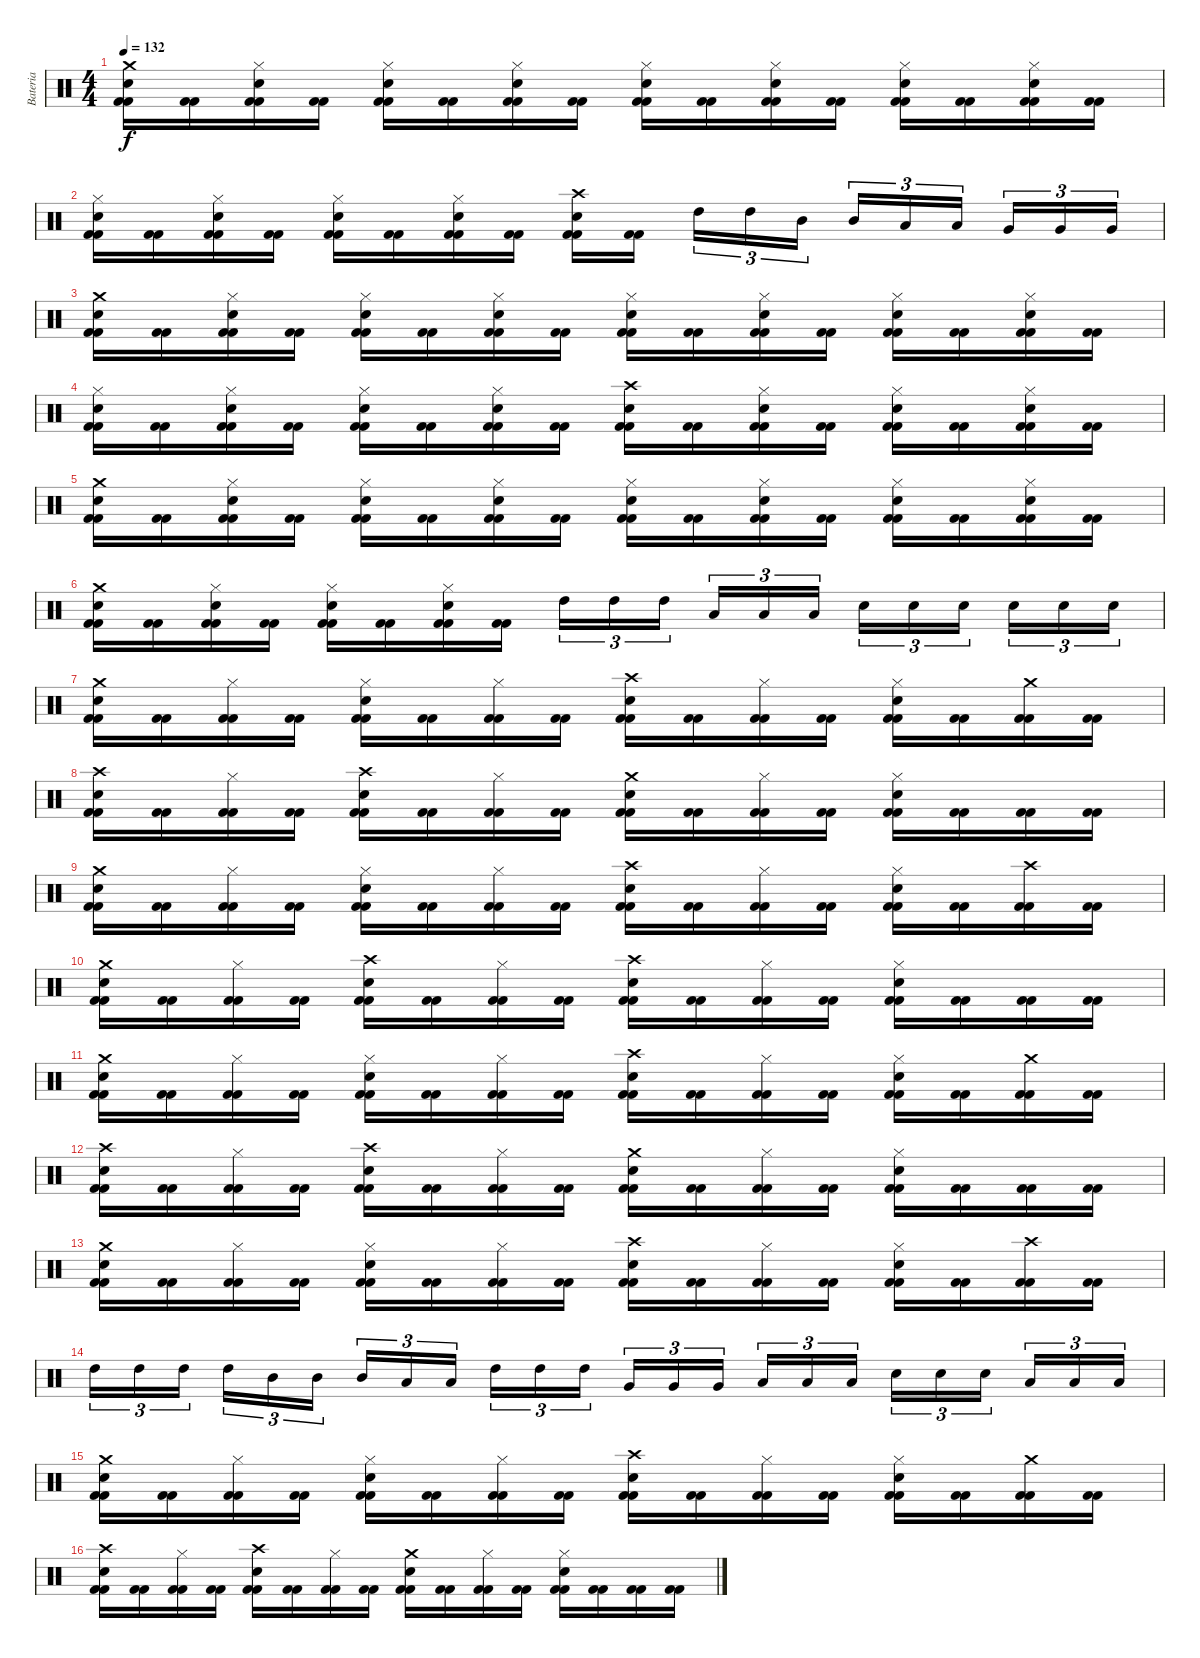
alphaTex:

\track ("Bateria" "Bateria") {instrument percussion}
\staff {score}
\articulation defaults
\ts (4 4)
\tempo 132
\clef neutral
\ks c
("Kick (hit) 2" "Kick (hit) 2" "Snare (hit) 2" "Crash medium (hit)").16{dy f} ("Kick (hit) 2" "Kick (hit) 2").16 ("Kick (hit) 2" "Kick (hit) 2" "Snare (hit) 2" "Hi-Hat (closed)").16 ("Kick (hit) 2" "Kick (hit) 2").16 ("Kick (hit) 2" "Kick (hit) 2" "Snare (hit) 2" "Hi-Hat (closed)").16 ("Kick (hit) 2" "Kick (hit) 2").16 ("Kick (hit) 2" "Kick (hit) 2" "Snare (hit) 2" "Hi-Hat (closed)").16 ("Kick (hit) 2" "Kick (hit) 2").16 ("Kick (hit) 2" "Kick (hit) 2" "Snare (hit) 2" "Hi-Hat (closed)").16 ("Kick (hit) 2" "Kick (hit) 2").16 ("Kick (hit) 2" "Kick (hit) 2" "Snare (hit) 2" "Hi-Hat (closed)").16 ("Kick (hit) 2" "Kick (hit) 2").16 ("Kick (hit) 2" "Kick (hit) 2" "Snare (hit) 2" "Hi-Hat (closed)").16 ("Kick (hit) 2" "Kick (hit) 2").16 ("Kick (hit) 2" "Kick (hit) 2" "Snare (hit) 2" "Hi-Hat (closed)").16 ("Kick (hit) 2" "Kick (hit) 2").16 |
("Kick (hit) 2" "Kick (hit) 2" "Snare (hit) 2" "Hi-Hat (closed)").16 ("Kick (hit) 2" "Kick (hit) 2").16 ("Kick (hit) 2" "Kick (hit) 2" "Snare (hit) 2" "Hi-Hat (closed)").16 ("Kick (hit) 2" "Kick (hit) 2").16 ("Kick (hit) 2" "Kick (hit) 2" "Snare (hit) 2" "Hi-Hat (closed)").16 ("Kick (hit) 2" "Kick (hit) 2").16 ("Kick (hit) 2" "Kick (hit) 2" "Snare (hit) 2" "Hi-Hat (closed)").16 ("Kick (hit) 2" "Kick (hit) 2").16 ("Kick (hit) 2" "Kick (hit) 2" "Snare (hit) 2" "Crash high (hit)").16 ("Kick (hit) 2" "Kick (hit) 2").16 "High Tom (hit)".16{tu (3 2)} "High Tom (hit)".16{tu (3 2)} "Mid Tom (hit)".16{tu (3 2)} "Mid Tom (hit)".16{tu (3 2)} "Low Tom (hit)".16{tu (3 2)} "Low Tom (hit)".16{tu (3 2)} "Very Low Tom (hit)".16{tu (3 2)} "Very Low Tom (hit)".16{tu (3 2)} "Very Low Tom (hit)".16{tu (3 2)} |
("Kick (hit) 2" "Kick (hit) 2" "Snare (hit) 2" "Crash medium (hit)").16 ("Kick (hit) 2" "Kick (hit) 2").16 ("Kick (hit) 2" "Kick (hit) 2" "Snare (hit) 2" "Hi-Hat (closed)").16 ("Kick (hit) 2" "Kick (hit) 2").16 ("Kick (hit) 2" "Kick (hit) 2" "Snare (hit) 2" "Hi-Hat (closed)").16 ("Kick (hit) 2" "Kick (hit) 2").16 ("Kick (hit) 2" "Kick (hit) 2" "Snare (hit) 2" "Hi-Hat (closed)").16 ("Kick (hit) 2" "Kick (hit) 2").16 ("Kick (hit) 2" "Kick (hit) 2" "Snare (hit) 2" "Hi-Hat (closed)").16 ("Kick (hit) 2" "Kick (hit) 2").16 ("Kick (hit) 2" "Kick (hit) 2" "Snare (hit) 2" "Hi-Hat (closed)").16 ("Kick (hit) 2" "Kick (hit) 2").16 ("Kick (hit) 2" "Kick (hit) 2" "Snare (hit) 2" "Hi-Hat (closed)").16 ("Kick (hit) 2" "Kick (hit) 2").16 ("Kick (hit) 2" "Kick (hit) 2" "Snare (hit) 2" "Hi-Hat (closed)").16 ("Kick (hit) 2" "Kick (hit) 2").16 |
("Kick (hit) 2" "Kick (hit) 2" "Snare (hit) 2" "Hi-Hat (closed)").16 ("Kick (hit) 2" "Kick (hit) 2").16 ("Kick (hit) 2" "Kick (hit) 2" "Snare (hit) 2" "Hi-Hat (closed)").16 ("Kick (hit) 2" "Kick (hit) 2").16 ("Kick (hit) 2" "Kick (hit) 2" "Snare (hit) 2" "Hi-Hat (closed)").16 ("Kick (hit) 2" "Kick (hit) 2").16 ("Kick (hit) 2" "Kick (hit) 2" "Snare (hit) 2" "Hi-Hat (closed)").16 ("Kick (hit) 2" "Kick (hit) 2").16 ("Kick (hit) 2" "Kick (hit) 2" "Snare (hit) 2" "Crash high (hit)").16 ("Kick (hit) 2" "Kick (hit) 2").16 ("Kick (hit) 2" "Kick (hit) 2" "Snare (hit) 2" "Hi-Hat (closed)").16 ("Kick (hit) 2" "Kick (hit) 2").16 ("Kick (hit) 2" "Kick (hit) 2" "Snare (hit) 2" "Hi-Hat (closed)").16 ("Kick (hit) 2" "Kick (hit) 2").16 ("Kick (hit) 2" "Kick (hit) 2" "Snare (hit) 2" "Hi-Hat (closed)").16 ("Kick (hit) 2" "Kick (hit) 2").16 |
("Kick (hit) 2" "Kick (hit) 2" "Snare (hit) 2" "Crash medium (hit)").16 ("Kick (hit) 2" "Kick (hit) 2").16 ("Kick (hit) 2" "Kick (hit) 2" "Snare (hit) 2" "Hi-Hat (closed)").16 ("Kick (hit) 2" "Kick (hit) 2").16 ("Kick (hit) 2" "Kick (hit) 2" "Snare (hit) 2" "Hi-Hat (closed)").16 ("Kick (hit) 2" "Kick (hit) 2").16 ("Kick (hit) 2" "Kick (hit) 2" "Snare (hit) 2" "Hi-Hat (closed)").16 ("Kick (hit) 2" "Kick (hit) 2").16 ("Kick (hit) 2" "Kick (hit) 2" "Snare (hit) 2" "Hi-Hat (closed)").16 ("Kick (hit) 2" "Kick (hit) 2").16 ("Kick (hit) 2" "Kick (hit) 2" "Snare (hit) 2" "Hi-Hat (closed)").16 ("Kick (hit) 2" "Kick (hit) 2").16 ("Kick (hit) 2" "Kick (hit) 2" "Snare (hit) 2" "Hi-Hat (closed)").16 ("Kick (hit) 2" "Kick (hit) 2").16 ("Kick (hit) 2" "Kick (hit) 2" "Snare (hit) 2" "Hi-Hat (closed)").16 ("Kick (hit) 2" "Kick (hit) 2").16 |
("Kick (hit) 2" "Kick (hit) 2" "Snare (hit) 2" "Crash medium (hit)").16 ("Kick (hit) 2" "Kick (hit) 2").16 ("Kick (hit) 2" "Kick (hit) 2" "Snare (hit) 2" "Hi-Hat (closed)").16 ("Kick (hit) 2" "Kick (hit) 2").16 ("Kick (hit) 2" "Kick (hit) 2" "Snare (hit) 2" "Hi-Hat (closed)").16 ("Kick (hit) 2" "Kick (hit) 2").16 ("Kick (hit) 2" "Kick (hit) 2" "Snare (hit) 2" "Hi-Hat (closed)").16 ("Kick (hit) 2" "Kick (hit) 2").16 "High Tom (hit)".16{tu (3 2)} "High Tom (hit)".16{tu (3 2)} "High Tom (hit)".16{tu (3 2)} "Low Tom (hit)".16{tu (3 2)} "Low Tom (hit)".16{tu (3 2)} "Low Tom (hit)".16{tu (3 2)} "Snare (hit) 2".16{tu (3 2)} "Snare (hit) 2".16{tu (3 2)} "Snare (hit) 2".16{tu (3 2)} "Snare (hit) 2".16{tu (3 2)} "Snare (hit) 2".16{tu (3 2)} "Snare (hit) 2".16{tu (3 2)} |
("Kick (hit) 2" "Kick (hit) 2" "Snare (hit) 2" "Crash medium (hit)").16 ("Kick (hit) 2" "Kick (hit) 2").16 ("Kick (hit) 2" "Kick (hit) 2" "Hi-Hat (closed)").16 ("Kick (hit) 2" "Kick (hit) 2").16 ("Kick (hit) 2" "Kick (hit) 2" "Snare (hit) 2" "Hi-Hat (closed)").16 ("Kick (hit) 2" "Kick (hit) 2").16 ("Kick (hit) 2" "Kick (hit) 2" "Hi-Hat (closed)").16 ("Kick (hit) 2" "Kick (hit) 2").16 ("Kick (hit) 2" "Kick (hit) 2" "Snare (hit) 2" "Crash high (hit)").16 ("Kick (hit) 2" "Kick (hit) 2").16 ("Kick (hit) 2" "Kick (hit) 2" "Hi-Hat (closed)").16 ("Kick (hit) 2" "Kick (hit) 2").16 ("Kick (hit) 2" "Kick (hit) 2" "Snare (hit) 2" "Hi-Hat (closed)").16 ("Kick (hit) 2" "Kick (hit) 2").16 ("Kick (hit) 2" "Kick (hit) 2" "Crash medium (hit)").16 ("Kick (hit) 2" "Kick (hit) 2").16 |
("Kick (hit) 2" "Kick (hit) 2" "Snare (hit) 2" "Crash high (hit)").16 ("Kick (hit) 2" "Kick (hit) 2").16 ("Kick (hit) 2" "Kick (hit) 2" "Hi-Hat (closed)").16 ("Kick (hit) 2" "Kick (hit) 2").16 ("Kick (hit) 2" "Kick (hit) 2" "Snare (hit) 2" "Crash high (hit)").16 ("Kick (hit) 2" "Kick (hit) 2").16 ("Kick (hit) 2" "Kick (hit) 2" "Hi-Hat (closed)").16 ("Kick (hit) 2" "Kick (hit) 2").16 ("Kick (hit) 2" "Kick (hit) 2" "Snare (hit) 2" "Crash medium (hit)").16 ("Kick (hit) 2" "Kick (hit) 2").16 ("Kick (hit) 2" "Kick (hit) 2" "Hi-Hat (closed)").16 ("Kick (hit) 2" "Kick (hit) 2").16 ("Kick (hit) 2" "Kick (hit) 2" "Snare (hit) 2" "Hi-Hat (closed)").16 ("Kick (hit) 2" "Kick (hit) 2").16 ("Kick (hit) 2" "Kick (hit) 2").16 ("Kick (hit) 2" "Kick (hit) 2").16 |
("Kick (hit) 2" "Kick (hit) 2" "Snare (hit) 2" "Crash medium (hit)").16 ("Kick (hit) 2" "Kick (hit) 2").16 ("Kick (hit) 2" "Kick (hit) 2" "Hi-Hat (closed)").16 ("Kick (hit) 2" "Kick (hit) 2").16 ("Kick (hit) 2" "Kick (hit) 2" "Snare (hit) 2" "Hi-Hat (closed)").16 ("Kick (hit) 2" "Kick (hit) 2").16 ("Kick (hit) 2" "Kick (hit) 2" "Hi-Hat (closed)").16 ("Kick (hit) 2" "Kick (hit) 2").16 ("Kick (hit) 2" "Kick (hit) 2" "Snare (hit) 2" "Crash high (hit)").16 ("Kick (hit) 2" "Kick (hit) 2").16 ("Kick (hit) 2" "Kick (hit) 2" "Hi-Hat (closed)").16 ("Kick (hit) 2" "Kick (hit) 2").16 ("Kick (hit) 2" "Kick (hit) 2" "Snare (hit) 2" "Hi-Hat (closed)").16 ("Kick (hit) 2" "Kick (hit) 2").16 ("Kick (hit) 2" "Kick (hit) 2" "Crash high (hit)").16 ("Kick (hit) 2" "Kick (hit) 2").16 |
("Kick (hit) 2" "Kick (hit) 2" "Snare (hit) 2" "Crash medium (hit)").16 ("Kick (hit) 2" "Kick (hit) 2").16 ("Kick (hit) 2" "Kick (hit) 2" "Hi-Hat (closed)").16 ("Kick (hit) 2" "Kick (hit) 2").16 ("Kick (hit) 2" "Kick (hit) 2" "Snare (hit) 2" "Crash high (hit)").16 ("Kick (hit) 2" "Kick (hit) 2").16 ("Kick (hit) 2" "Kick (hit) 2" "Hi-Hat (closed)").16 ("Kick (hit) 2" "Kick (hit) 2").16 ("Kick (hit) 2" "Kick (hit) 2" "Snare (hit) 2" "Crash high (hit)").16 ("Kick (hit) 2" "Kick (hit) 2").16 ("Kick (hit) 2" "Kick (hit) 2" "Hi-Hat (closed)").16 ("Kick (hit) 2" "Kick (hit) 2").16 ("Kick (hit) 2" "Kick (hit) 2" "Snare (hit) 2" "Hi-Hat (closed)").16 ("Kick (hit) 2" "Kick (hit) 2").16 ("Kick (hit) 2" "Kick (hit) 2").16 ("Kick (hit) 2" "Kick (hit) 2").16 |
("Kick (hit) 2" "Kick (hit) 2" "Snare (hit) 2" "Crash medium (hit)").16 ("Kick (hit) 2" "Kick (hit) 2").16 ("Kick (hit) 2" "Kick (hit) 2" "Hi-Hat (closed)").16 ("Kick (hit) 2" "Kick (hit) 2").16 ("Kick (hit) 2" "Kick (hit) 2" "Snare (hit) 2" "Hi-Hat (closed)").16 ("Kick (hit) 2" "Kick (hit) 2").16 ("Kick (hit) 2" "Kick (hit) 2" "Hi-Hat (closed)").16 ("Kick (hit) 2" "Kick (hit) 2").16 ("Kick (hit) 2" "Kick (hit) 2" "Snare (hit) 2" "Crash high (hit)").16 ("Kick (hit) 2" "Kick (hit) 2").16 ("Kick (hit) 2" "Kick (hit) 2" "Hi-Hat (closed)").16 ("Kick (hit) 2" "Kick (hit) 2").16 ("Kick (hit) 2" "Kick (hit) 2" "Snare (hit) 2" "Hi-Hat (closed)").16 ("Kick (hit) 2" "Kick (hit) 2").16 ("Kick (hit) 2" "Kick (hit) 2" "Crash medium (hit)").16 ("Kick (hit) 2" "Kick (hit) 2").16 |
("Kick (hit) 2" "Kick (hit) 2" "Snare (hit) 2" "Crash high (hit)").16 ("Kick (hit) 2" "Kick (hit) 2").16 ("Kick (hit) 2" "Kick (hit) 2" "Hi-Hat (closed)").16 ("Kick (hit) 2" "Kick (hit) 2").16 ("Kick (hit) 2" "Kick (hit) 2" "Snare (hit) 2" "Crash high (hit)").16 ("Kick (hit) 2" "Kick (hit) 2").16 ("Kick (hit) 2" "Kick (hit) 2" "Hi-Hat (closed)").16 ("Kick (hit) 2" "Kick (hit) 2").16 ("Kick (hit) 2" "Kick (hit) 2" "Snare (hit) 2" "Crash medium (hit)").16 ("Kick (hit) 2" "Kick (hit) 2").16 ("Kick (hit) 2" "Kick (hit) 2" "Hi-Hat (closed)").16 ("Kick (hit) 2" "Kick (hit) 2").16 ("Kick (hit) 2" "Kick (hit) 2" "Snare (hit) 2" "Hi-Hat (closed)").16 ("Kick (hit) 2" "Kick (hit) 2").16 ("Kick (hit) 2" "Kick (hit) 2").16 ("Kick (hit) 2" "Kick (hit) 2").16 |
("Kick (hit) 2" "Kick (hit) 2" "Snare (hit) 2" "Crash medium (hit)").16 ("Kick (hit) 2" "Kick (hit) 2").16 ("Kick (hit) 2" "Kick (hit) 2" "Hi-Hat (closed)").16 ("Kick (hit) 2" "Kick (hit) 2").16 ("Kick (hit) 2" "Kick (hit) 2" "Snare (hit) 2" "Hi-Hat (closed)").16 ("Kick (hit) 2" "Kick (hit) 2").16 ("Kick (hit) 2" "Kick (hit) 2" "Hi-Hat (closed)").16 ("Kick (hit) 2" "Kick (hit) 2").16 ("Kick (hit) 2" "Kick (hit) 2" "Snare (hit) 2" "Crash high (hit)").16 ("Kick (hit) 2" "Kick (hit) 2").16 ("Kick (hit) 2" "Kick (hit) 2" "Hi-Hat (closed)").16 ("Kick (hit) 2" "Kick (hit) 2").16 ("Kick (hit) 2" "Kick (hit) 2" "Snare (hit) 2" "Hi-Hat (closed)").16 ("Kick (hit) 2" "Kick (hit) 2").16 ("Kick (hit) 2" "Kick (hit) 2" "Crash high (hit)").16 ("Kick (hit) 2" "Kick (hit) 2").16 |
"High Tom (hit)".16{tu (3 2)} "High Tom (hit)".16{tu (3 2)} "High Tom (hit)".16{tu (3 2)} "High Tom (hit)".16{tu (3 2)} "Mid Tom (hit)".16{tu (3 2)} "Mid Tom (hit)".16{tu (3 2)} "Mid Tom (hit)".16{tu (3 2)} "Low Tom (hit)".16{tu (3 2)} "Low Tom (hit)".16{tu (3 2)} "High Tom (hit)".16{tu (3 2)} "High Tom (hit)".16{tu (3 2)} "High Tom (hit)".16{tu (3 2)} "Very Low Tom (hit)".16{tu (3 2)} "Very Low Tom (hit)".16{tu (3 2)} "Very Low Tom (hit)".16{tu (3 2)} "Low Floor Tom (hit)".16{tu (3 2)} "Low Floor Tom (hit)".16{tu (3 2)} "Low Floor Tom (hit)".16{tu (3 2)} "Snare (hit) 2".16{tu (3 2)} "Snare (hit) 2".16{tu (3 2)} "Snare (hit) 2".16{tu (3 2)} "Low Tom (hit)".16{tu (3 2)} "Low Tom (hit)".16{tu (3 2)} "Low Tom (hit)".16{tu (3 2)} |
("Kick (hit) 2" "Kick (hit) 2" "Snare (hit) 2" "Crash medium (hit)").16 ("Kick (hit) 2" "Kick (hit) 2").16 ("Kick (hit) 2" "Kick (hit) 2" "Hi-Hat (closed)").16 ("Kick (hit) 2" "Kick (hit) 2").16 ("Kick (hit) 2" "Kick (hit) 2" "Snare (hit) 2" "Hi-Hat (closed)").16 ("Kick (hit) 2" "Kick (hit) 2").16 ("Kick (hit) 2" "Kick (hit) 2" "Hi-Hat (closed)").16 ("Kick (hit) 2" "Kick (hit) 2").16 ("Kick (hit) 2" "Kick (hit) 2" "Snare (hit) 2" "Crash high (hit)").16 ("Kick (hit) 2" "Kick (hit) 2").16 ("Kick (hit) 2" "Kick (hit) 2" "Hi-Hat (closed)").16 ("Kick (hit) 2" "Kick (hit) 2").16 ("Kick (hit) 2" "Kick (hit) 2" "Snare (hit) 2" "Hi-Hat (closed)").16 ("Kick (hit) 2" "Kick (hit) 2").16 ("Kick (hit) 2" "Kick (hit) 2" "Crash medium (hit)").16 ("Kick (hit) 2" "Kick (hit) 2").16 |
("Kick (hit) 2" "Kick (hit) 2" "Snare (hit) 2" "Crash high (hit)").16 ("Kick (hit) 2" "Kick (hit) 2").16 ("Kick (hit) 2" "Kick (hit) 2" "Hi-Hat (closed)").16 ("Kick (hit) 2" "Kick (hit) 2").16 ("Kick (hit) 2" "Kick (hit) 2" "Snare (hit) 2" "Crash high (hit)").16 ("Kick (hit) 2" "Kick (hit) 2").16 ("Kick (hit) 2" "Kick (hit) 2" "Hi-Hat (closed)").16 ("Kick (hit) 2" "Kick (hit) 2").16 ("Kick (hit) 2" "Kick (hit) 2" "Snare (hit) 2" "Crash medium (hit)").16 ("Kick (hit) 2" "Kick (hit) 2").16 ("Kick (hit) 2" "Kick (hit) 2" "Hi-Hat (closed)").16 ("Kick (hit) 2" "Kick (hit) 2").16 ("Kick (hit) 2" "Kick (hit) 2" "Snare (hit) 2" "Hi-Hat (closed)").16 ("Kick (hit) 2" "Kick (hit) 2").16 ("Kick (hit) 2" "Kick (hit) 2").16 ("Kick (hit) 2" "Kick (hit) 2").16
